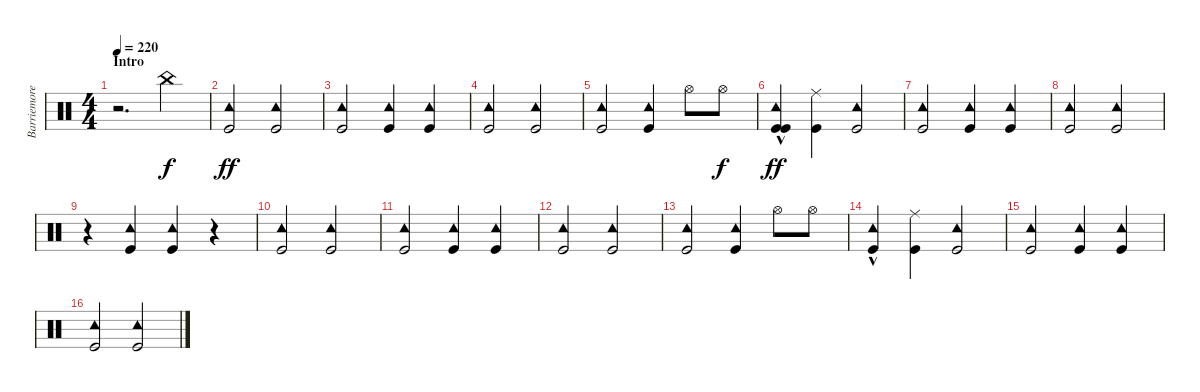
\track ("Barriemore Barlow (Drums)" "Barriemore") {instrument percussion}
\staff {score}
\articulation defaults
\ts (4 4)
\section ("" "Intro")
\tempo 220
\clef neutral
\ks c
r.2{d dy f} "China (hit)".4 |
("Tambourine (hit)" "Kick (hit)").2{dy ff} ("Tambourine (hit)" "Kick (hit)").2 |
("Tambourine (hit)" "Kick (hit)").2 ("Tambourine (hit)" "Kick (hit)").4 ("Tambourine (hit)" "Kick (hit)").4 |
("Tambourine (hit)" "Kick (hit)").2 ("Tambourine (hit)" "Kick (hit)").2 |
("Tambourine (hit)" "Kick (hit)").2 ("Tambourine (hit)" "Kick (hit)").4 "Hi-Hat (open)".8 "Hi-Hat (open)".8{dy f} |
("Kick (hit)"{hac} "Tambourine (hit)"{hac} "Kick (hit)").4{dy ff} ("Ride (middle)" "Kick (hit)").4 ("Tambourine (hit)" "Kick (hit)").2 |
("Tambourine (hit)" "Kick (hit)").2 ("Tambourine (hit)" "Kick (hit)").4 ("Tambourine (hit)" "Kick (hit)").4 |
("Tambourine (hit)" "Kick (hit)").2 ("Tambourine (hit)" "Kick (hit)").2 |
r.4 ("Tambourine (hit)" "Kick (hit)").4 ("Tambourine (hit)" "Kick (hit)").4 r.4 |
("Tambourine (hit)" "Kick (hit)").2 ("Tambourine (hit)" "Kick (hit)").2 |
("Tambourine (hit)" "Kick (hit)").2 ("Tambourine (hit)" "Kick (hit)").4 ("Tambourine (hit)" "Kick (hit)").4 |
("Tambourine (hit)" "Kick (hit)").2 ("Tambourine (hit)" "Kick (hit)").2 |
("Tambourine (hit)" "Kick (hit)").2 ("Tambourine (hit)" "Kick (hit)").4 "Hi-Hat (open)".8 "Hi-Hat (open)".8 |
("Tambourine (hit)"{hac} "Kick (hit)").4 ("Ride (middle)" "Kick (hit)").4 ("Tambourine (hit)" "Kick (hit)").2 |
("Tambourine (hit)" "Kick (hit)").2 ("Tambourine (hit)" "Kick (hit)").4 ("Tambourine (hit)" "Kick (hit)").4 |
("Tambourine (hit)" "Kick (hit)").2 ("Tambourine (hit)" "Kick (hit)").2
